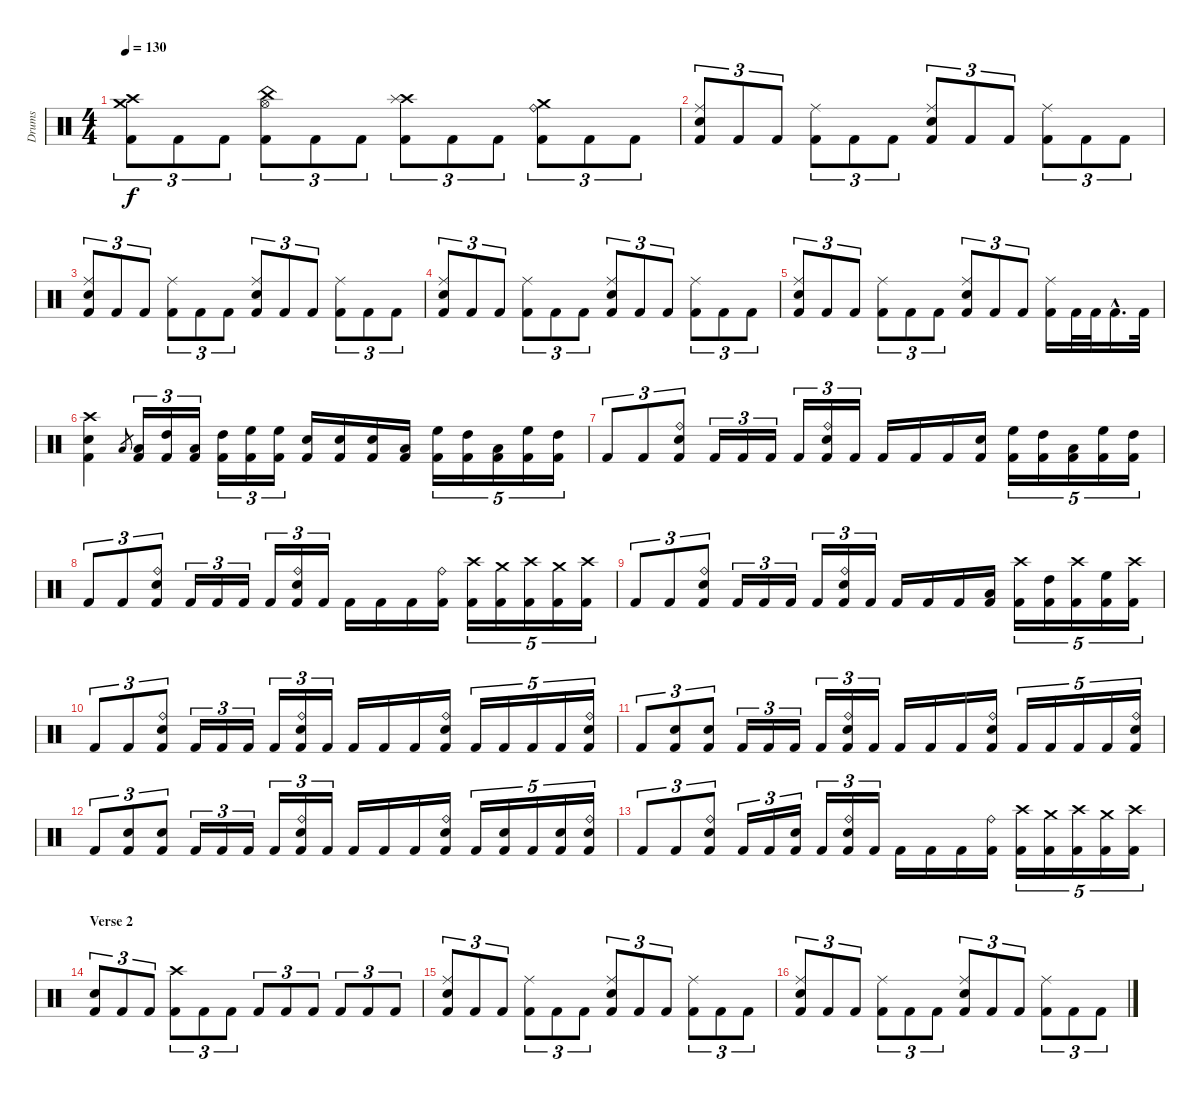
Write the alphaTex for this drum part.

\track ("Drums" "Drums") {instrument percussion}
\staff {score}
\articulation defaults
\ts (4 4)
\tempo 130
\clef neutral
\ks c
("Crash high (hit)" "Crash medium (hit)" "Kick (hit) 2").8{tu (3 2) dy f} "Kick (hit) 2".8{tu (3 2)} "Kick (hit) 2".8{tu (3 2)} ("Hi-Hat (open)" "China (hit)" "Kick (hit) 2").8{tu (3 2)} "Kick (hit) 2".8{tu (3 2)} "Kick (hit) 2".8{tu (3 2)} ("Crash high (hit)" "Splash (hit)" "Kick (hit) 2").8{tu (3 2)} "Kick (hit) 2".8{tu (3 2)} "Kick (hit) 2".8{tu (3 2)} ("Crash medium (hit)" "Ride (bell)" "Kick (hit) 2").8{tu (3 2)} "Kick (hit) 2".8{tu (3 2)} "Kick (hit) 2".8{tu (3 2)} |
("Ride (middle)" "Snare (hit) 2" "Kick (hit) 2").8{tu (3 2)} "Kick (hit) 2".8{tu (3 2)} "Kick (hit) 2".8{tu (3 2)} ("Ride (middle)" "Kick (hit) 2").8{tu (3 2)} "Kick (hit) 2".8{tu (3 2)} "Kick (hit) 2".8{tu (3 2)} ("Ride (middle)" "Snare (hit) 2" "Kick (hit) 2").8{tu (3 2)} "Kick (hit) 2".8{tu (3 2)} "Kick (hit) 2".8{tu (3 2)} ("Ride (middle)" "Kick (hit) 2").8{tu (3 2)} "Kick (hit) 2".8{tu (3 2)} "Kick (hit) 2".8{tu (3 2)} |
("Ride (middle)" "Snare (hit) 2" "Kick (hit) 2").8{tu (3 2)} "Kick (hit) 2".8{tu (3 2)} "Kick (hit) 2".8{tu (3 2)} ("Ride (middle)" "Kick (hit) 2").8{tu (3 2)} "Kick (hit) 2".8{tu (3 2)} "Kick (hit) 2".8{tu (3 2)} ("Ride (middle)" "Snare (hit) 2" "Kick (hit) 2").8{tu (3 2)} "Kick (hit) 2".8{tu (3 2)} "Kick (hit) 2".8{tu (3 2)} ("Ride (middle)" "Kick (hit) 2").8{tu (3 2)} "Kick (hit) 2".8{tu (3 2)} "Kick (hit) 2".8{tu (3 2)} |
("Ride (middle)" "Snare (hit) 2" "Kick (hit) 2").8{tu (3 2)} "Kick (hit) 2".8{tu (3 2)} "Kick (hit) 2".8{tu (3 2)} ("Ride (middle)" "Kick (hit) 2").8{tu (3 2)} "Kick (hit) 2".8{tu (3 2)} "Kick (hit) 2".8{tu (3 2)} ("Ride (middle)" "Snare (hit) 2" "Kick (hit) 2").8{tu (3 2)} "Kick (hit) 2".8{tu (3 2)} "Kick (hit) 2".8{tu (3 2)} ("Ride (middle)" "Kick (hit) 2").8{tu (3 2)} "Kick (hit) 2".8{tu (3 2)} "Kick (hit) 2".8{tu (3 2)} |
("Ride (middle)" "Snare (hit) 2" "Kick (hit) 2").8{tu (3 2)} "Kick (hit) 2".8{tu (3 2)} "Kick (hit) 2".8{tu (3 2)} ("Ride (middle)" "Kick (hit) 2").8{tu (3 2)} "Kick (hit) 2".8{tu (3 2)} "Kick (hit) 2".8{tu (3 2)} ("Ride (middle)" "Snare (hit) 2" "Kick (hit) 2").8{tu (3 2)} "Kick (hit) 2".8{tu (3 2)} "Kick (hit) 2".8{tu (3 2)} ("Ride (middle)" "Kick (hit) 2").16 "Kick (hit) 2".32 "Kick (hit) 2".32 "Kick (hit) 2"{hac}.16{d} "Kick (hit) 2".32 |
("Crash high (hit)" "Snare (hit) 2" "Kick (hit) 2").4 "Low Tom (hit)".8{gr} ("Low Tom (hit)" "Kick (hit) 2").16{tu (3 2)} ("High Tom (hit)" "Kick (hit) 2").16{tu (3 2)} ("Low Tom (hit)" "Kick (hit) 2").16{tu (3 2)} ("High Tom (hit)" "Kick (hit) 2").16{tu (3 2)} ("High Floor Tom (hit)" "Kick (hit) 2").16{tu (3 2)} ("High Floor Tom (hit)" "Kick (hit) 2").16{tu (3 2)} ("Snare (hit) 2" "Kick (hit) 2").16 ("Snare (hit) 2" "Kick (hit) 2").16 ("Snare (hit) 2" "Kick (hit) 2").16 ("Low Tom (hit)" "Kick (hit) 2").16 ("High Floor Tom (hit)" "Kick (hit) 2").16{tu (5 4)} ("High Tom (hit)" "Kick (hit) 2").16{tu (5 4)} ("Low Tom (hit)" "Kick (hit) 2").16{tu (5 4)} ("High Floor Tom (hit)" "Kick (hit) 2").16{tu (5 4)} ("High Tom (hit)" "Kick (hit) 2").16{tu (5 4)} |
"Kick (hit) 2".8{tu (3 2)} "Kick (hit) 2".8{tu (3 2)} ("Ride (bell)" "Snare (hit) 2" "Kick (hit) 2").8{tu (3 2)} "Kick (hit) 2".16{tu (3 2)} "Kick (hit) 2".16{tu (3 2)} "Kick (hit) 2".16{tu (3 2)} "Kick (hit) 2".16{tu (3 2)} ("Ride (bell)" "Snare (hit) 2" "Kick (hit) 2").16{tu (3 2)} "Kick (hit) 2".16{tu (3 2)} "Kick (hit) 2".16 "Kick (hit) 2".16 "Kick (hit) 2".16 ("Snare (hit) 2" "Kick (hit) 2").16 ("High Floor Tom (hit)" "Kick (hit) 2").16{tu (5 4)} ("High Tom (hit)" "Kick (hit) 2").16{tu (5 4)} ("Low Tom (hit)" "Kick (hit) 2").16{tu (5 4)} ("High Floor Tom (hit)" "Kick (hit) 2").16{tu (5 4)} ("High Tom (hit)" "Kick (hit) 2").16{tu (5 4)} |
"Kick (hit) 2".8{tu (3 2)} "Kick (hit) 2".8{tu (3 2)} ("Ride (bell)" "Snare (hit) 2" "Kick (hit) 2").8{tu (3 2)} "Kick (hit) 2".16{tu (3 2)} "Kick (hit) 2".16{tu (3 2)} "Kick (hit) 2".16{tu (3 2)} "Kick (hit) 2".16{tu (3 2)} ("Ride (bell)" "Snare (hit) 2" "Kick (hit) 2").16{tu (3 2)} "Kick (hit) 2".16{tu (3 2)} "Kick (hit) 2".16 "Kick (hit) 2".16 "Kick (hit) 2".16 ("Ride (bell)" "Kick (hit) 2").16 ("Crash high (hit)" "Kick (hit) 2").16{tu (5 4)} ("Crash medium (hit)" "Kick (hit) 2").16{tu (5 4)} ("Crash high (hit)" "Kick (hit) 2").16{tu (5 4)} ("Crash medium (hit)" "Kick (hit) 2").16{tu (5 4)} ("Crash high (hit)" "Kick (hit) 2").16{tu (5 4)} |
"Kick (hit) 2".8{tu (3 2)} "Kick (hit) 2".8{tu (3 2)} ("Ride (bell)" "Snare (hit) 2" "Kick (hit) 2").8{tu (3 2)} "Kick (hit) 2".16{tu (3 2)} "Kick (hit) 2".16{tu (3 2)} "Kick (hit) 2".16{tu (3 2)} "Kick (hit) 2".16{tu (3 2)} ("Ride (bell)" "Snare (hit) 2" "Kick (hit) 2").16{tu (3 2)} "Kick (hit) 2".16{tu (3 2)} "Kick (hit) 2".16 "Kick (hit) 2".16 "Kick (hit) 2".16 ("Low Tom (hit)" "Kick (hit) 2").16 ("Crash high (hit)" "Kick (hit) 2").16{tu (5 4)} ("High Tom (hit)" "Kick (hit) 2").16{tu (5 4)} ("Crash high (hit)" "Kick (hit) 2").16{tu (5 4)} ("High Floor Tom (hit)" "Kick (hit) 2").16{tu (5 4)} ("Crash high (hit)" "Kick (hit) 2").16{tu (5 4)} |
"Kick (hit) 2".8{tu (3 2)} "Kick (hit) 2".8{tu (3 2)} ("Ride (bell)" "Snare (hit) 2" "Kick (hit) 2").8{tu (3 2)} "Kick (hit) 2".16{tu (3 2)} "Kick (hit) 2".16{tu (3 2)} "Kick (hit) 2".16{tu (3 2)} "Kick (hit) 2".16{tu (3 2)} ("Ride (bell)" "Snare (hit) 2" "Kick (hit) 2").16{tu (3 2)} "Kick (hit) 2".16{tu (3 2)} "Kick (hit) 2".16 "Kick (hit) 2".16 "Kick (hit) 2".16 ("Ride (bell)" "Snare (hit) 2" "Kick (hit) 2").16 "Kick (hit) 2".16{tu (5 4)} "Kick (hit) 2".16{tu (5 4)} "Kick (hit) 2".16{tu (5 4)} "Kick (hit) 2".16{tu (5 4)} ("Ride (bell)" "Snare (hit) 2" "Kick (hit) 2").16{tu (5 4)} |
"Kick (hit) 2".8{tu (3 2)} ("Snare (hit) 2" "Kick (hit) 2").8{tu (3 2)} ("Snare (hit) 2" "Kick (hit) 2").8{tu (3 2)} "Kick (hit) 2".16{tu (3 2)} "Kick (hit) 2".16{tu (3 2)} "Kick (hit) 2".16{tu (3 2)} "Kick (hit) 2".16{tu (3 2)} ("Ride (bell)" "Snare (hit) 2" "Kick (hit) 2").16{tu (3 2)} "Kick (hit) 2".16{tu (3 2)} "Kick (hit) 2".16 "Kick (hit) 2".16 "Kick (hit) 2".16 ("Ride (bell)" "Snare (hit) 2" "Kick (hit) 2").16 "Kick (hit) 2".16{tu (5 4)} "Kick (hit) 2".16{tu (5 4)} "Kick (hit) 2".16{tu (5 4)} "Kick (hit) 2".16{tu (5 4)} ("Ride (bell)" "Snare (hit) 2" "Kick (hit) 2").16{tu (5 4)} |
"Kick (hit) 2".8{tu (3 2)} ("Snare (hit) 2" "Kick (hit) 2").8{tu (3 2)} ("Snare (hit) 2" "Kick (hit) 2").8{tu (3 2)} "Kick (hit) 2".16{tu (3 2)} "Kick (hit) 2".16{tu (3 2)} "Kick (hit) 2".16{tu (3 2)} "Kick (hit) 2".16{tu (3 2)} ("Ride (bell)" "Snare (hit) 2" "Kick (hit) 2").16{tu (3 2)} "Kick (hit) 2".16{tu (3 2)} "Kick (hit) 2".16 "Kick (hit) 2".16 "Kick (hit) 2".16 ("Ride (bell)" "Snare (hit) 2" "Kick (hit) 2").16 "Kick (hit) 2".16{tu (5 4)} ("Snare (hit) 2" "Kick (hit) 2").16{tu (5 4)} "Kick (hit) 2".16{tu (5 4)} ("Snare (hit) 2" "Kick (hit) 2").16{tu (5 4)} ("Ride (bell)" "Snare (hit) 2" "Kick (hit) 2").16{tu (5 4)} |
"Kick (hit) 2".8{tu (3 2)} "Kick (hit) 2".8{tu (3 2)} ("Ride (bell)" "Snare (hit) 2" "Kick (hit) 2").8{tu (3 2)} "Kick (hit) 2".16{tu (3 2)} "Kick (hit) 2".16{tu (3 2)} ("Snare (hit) 2" "Kick (hit) 2").16{tu (3 2)} "Kick (hit) 2".16{tu (3 2)} ("Ride (bell)" "Snare (hit) 2" "Kick (hit) 2").16{tu (3 2)} "Kick (hit) 2".16{tu (3 2)} "Kick (hit) 2".16 "Kick (hit) 2".16 "Kick (hit) 2".16 ("Ride (bell)" "Kick (hit) 2").16 ("Crash high (hit)" "Kick (hit) 2").16{tu (5 4)} ("Crash medium (hit)" "Kick (hit) 2").16{tu (5 4)} ("Crash high (hit)" "Kick (hit) 2").16{tu (5 4)} ("Crash medium (hit)" "Kick (hit) 2").16{tu (5 4)} ("Crash high (hit)" "Kick (hit) 2").16{tu (5 4)} |
\section ("" "Verse 2")
("Snare (hit) 2" "Kick (hit) 2").8{tu (3 2)} "Kick (hit) 2".8{tu (3 2)} "Kick (hit) 2".8{tu (3 2)} ("Crash high (hit)" "Kick (hit) 2").8{tu (3 2)} "Kick (hit) 2".8{tu (3 2)} "Kick (hit) 2".8{tu (3 2)} "Kick (hit) 2".8{tu (3 2)} "Kick (hit) 2".8{tu (3 2)} "Kick (hit) 2".8{tu (3 2)} "Kick (hit) 2".8{tu (3 2)} "Kick (hit) 2".8{tu (3 2)} "Kick (hit) 2".8{tu (3 2)} |
("Ride (middle)" "Snare (hit) 2" "Kick (hit) 2").8{tu (3 2)} "Kick (hit) 2".8{tu (3 2)} "Kick (hit) 2".8{tu (3 2)} ("Ride (middle)" "Kick (hit) 2").8{tu (3 2)} "Kick (hit) 2".8{tu (3 2)} "Kick (hit) 2".8{tu (3 2)} ("Ride (middle)" "Snare (hit) 2" "Kick (hit) 2").8{tu (3 2)} "Kick (hit) 2".8{tu (3 2)} "Kick (hit) 2".8{tu (3 2)} ("Ride (middle)" "Kick (hit) 2").8{tu (3 2)} "Kick (hit) 2".8{tu (3 2)} "Kick (hit) 2".8{tu (3 2)} |
("Ride (middle)" "Snare (hit) 2" "Kick (hit) 2").8{tu (3 2)} "Kick (hit) 2".8{tu (3 2)} "Kick (hit) 2".8{tu (3 2)} ("Ride (middle)" "Kick (hit) 2").8{tu (3 2)} "Kick (hit) 2".8{tu (3 2)} "Kick (hit) 2".8{tu (3 2)} ("Ride (middle)" "Snare (hit) 2" "Kick (hit) 2").8{tu (3 2)} "Kick (hit) 2".8{tu (3 2)} "Kick (hit) 2".8{tu (3 2)} ("Ride (middle)" "Kick (hit) 2").8{tu (3 2)} "Kick (hit) 2".8{tu (3 2)} "Kick (hit) 2".8{tu (3 2)}
